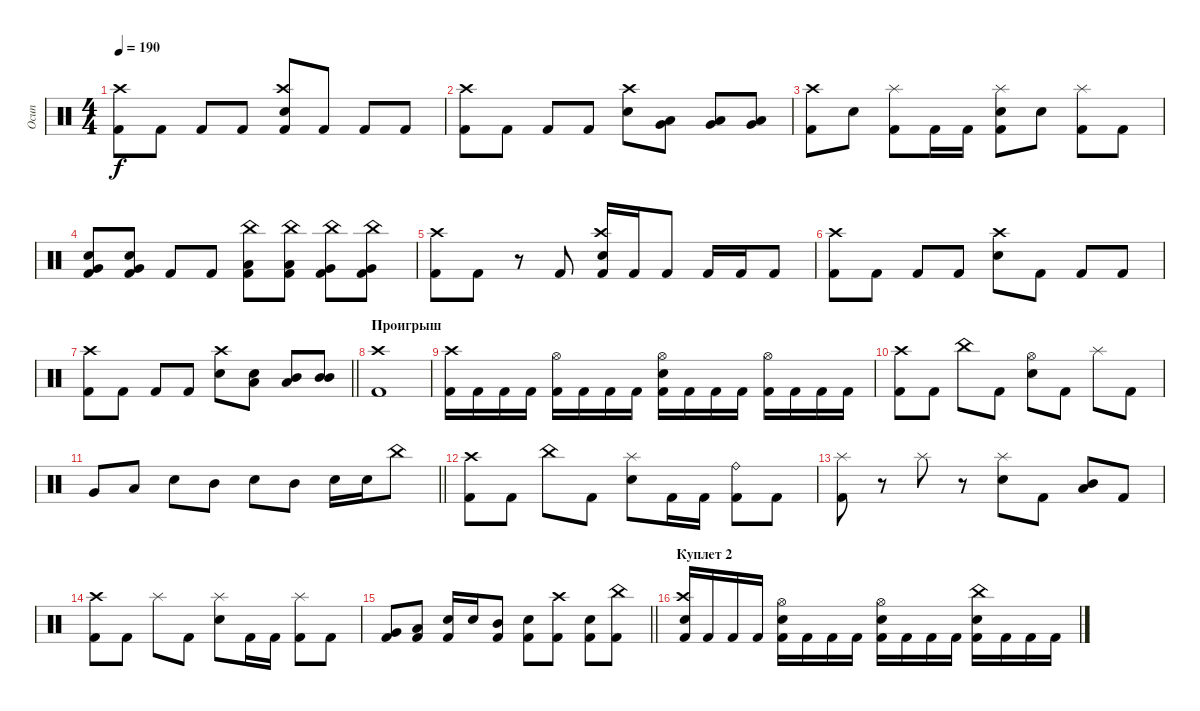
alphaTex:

\track ("Осип" "Осип") {instrument percussion}
\staff {score}
\articulation defaults
\ts (4 4)
\tempo 190
\clef neutral
\ks c
("Kick (hit) 2" "Crash high (hit)").8{dy f} "Kick (hit) 2".8 "Kick (hit) 2".8 "Kick (hit) 2".8 ("Kick (hit) 2" "Electric Snare (hit)" "Crash high (hit)").8 "Kick (hit) 2".8 "Kick (hit) 2".8 "Kick (hit) 2".8 |
("Kick (hit) 2" "Crash high (hit)").8 "Kick (hit) 2".8 "Kick (hit) 2".8 "Kick (hit) 2".8 ("Electric Snare (hit)" "Crash high (hit)").8 ("Low Tom (hit)" "Very Low Tom (hit)").8 ("Low Tom (hit)" "Very Low Tom (hit)").8 ("Low Tom (hit)" "Very Low Tom (hit)").8 |
("Kick (hit) 2" "Crash high (hit)").8 "Electric Snare (hit)".8 ("Kick (hit) 2" "Splash (hit)").8 "Kick (hit) 2".16 "Kick (hit) 2".16 ("Electric Snare (hit)" "Kick (hit) 2" "Splash (hit)").8 "Electric Snare (hit)".8 ("Kick (hit) 2" "Splash (hit)").8 "Kick (hit) 2".8 |
("Kick (hit) 2" "Electric Snare (hit)" "Very Low Tom (hit)").8 ("Kick (hit) 2" "Electric Snare (hit)" "Very Low Tom (hit)").8 "Kick (hit) 2".8 "Kick (hit) 2".8 ("Low Tom (hit)" "Kick (hit) 2" "China (hit)").8 ("Low Tom (hit)" "Kick (hit) 2" "China (hit)").8 ("Very Low Tom (hit)" "Kick (hit) 2" "China (hit)").8 ("Very Low Tom (hit)" "Kick (hit) 2" "China (hit)").8 |
("Kick (hit) 2" "Crash high (hit)").8 "Kick (hit) 2".8 r.8 "Kick (hit) 2".8 ("Kick (hit) 2" "Electric Snare (hit)" "Crash high (hit)").16 "Kick (hit) 2".16 "Kick (hit) 2".8 "Kick (hit) 2".16 "Kick (hit) 2".16 "Kick (hit) 2".8 |
("Kick (hit) 2" "Crash high (hit)").8 "Kick (hit) 2".8 "Kick (hit) 2".8 "Kick (hit) 2".8 ("Electric Snare (hit)" "Crash high (hit)").8 "Kick (hit) 2".8 "Kick (hit) 2".8 "Kick (hit) 2".8 |
\barLineRight lightlight
("Kick (hit) 2" "Crash high (hit)").8 "Kick (hit) 2".8 "Kick (hit) 2".8 "Kick (hit) 2".8 ("Electric Snare (hit)" "Crash high (hit)").8 ("Low Tom (hit)" "Electric Snare (hit)").8 ("Mid Tom (hit)" "Low Tom (hit)").8 ("Mid Tom (hit)" "Mid Tom (hit)").8 |
\section ("" "Проигрыш")
("Kick (hit) 2" "Crash high (hit)").1 |
("Crash high (hit)" "Kick (hit) 2").16 "Kick (hit) 2".16 "Kick (hit) 2".16 "Kick (hit) 2".16 ("Hi-Hat (open)" "Kick (hit) 2").16 "Kick (hit) 2".16 "Kick (hit) 2".16 "Kick (hit) 2".16 ("Hi-Hat (open)" "Kick (hit) 2" "Electric Snare (hit)").16 "Kick (hit) 2".16 "Kick (hit) 2".16 "Kick (hit) 2".16 ("Hi-Hat (open)" "Kick (hit) 2").16 "Kick (hit) 2".16 "Kick (hit) 2".16 "Kick (hit) 2".16 |
("Kick (hit) 2" "Crash high (hit)").8 "Kick (hit) 2".8 "China (hit)".8 "Kick (hit) 2".8 ("Electric Snare (hit)" "Hi-Hat (open)").8 "Kick (hit) 2".8 "Splash (hit)".8 "Kick (hit) 2".8 |
\barLineRight lightlight "Very Low Tom (hit)".8 "Low Tom (hit)".8 "Electric Snare (hit)".8 "Mid Tom (hit)".8 "Electric Snare (hit)".8 "Mid Tom (hit)".8 "Electric Snare (hit)".16 "Electric Snare (hit)".16 "China (hit)".8
|
("Kick (hit) 2" "Crash high (hit)").8 "Kick (hit) 2".8 "China (hit)".8 "Kick (hit) 2".8 ("Electric Snare (hit)" "Splash (hit)").8 "Kick (hit) 2".16 "Kick (hit) 2".16 ("Kick (hit) 2" "Ride (bell)").8 "Kick (hit) 2".8 |
("Kick (hit) 2" "Splash (hit)").8 r.8 "Splash (hit)".8 r.8 ("Electric Snare (hit)" "Splash (hit)").8 "Kick (hit) 2".8 ("Low Tom (hit)" "Mid Tom (hit)").8 "Kick (hit) 2".8 |
("Kick (hit) 2" "Crash high (hit)").8 "Kick (hit) 2".8 "Splash (hit)".8 "Kick (hit) 2".8 ("Electric Snare (hit)" "Splash (hit)").8 "Kick (hit) 2".16 "Kick (hit) 2".16 ("Kick (hit) 2" "Splash (hit)").8 "Kick (hit) 2".8 |
\barLineRight lightlight
("Very Low Tom (hit)" "Kick (hit) 2").8 ("Low Tom (hit)" "Kick (hit) 2").8 ("Electric Snare (hit)" "Kick (hit) 2").16 "Electric Snare (hit)".16 ("Mid Tom (hit)" "Kick (hit) 2").8 ("Electric Snare (hit)" "Kick (hit) 2").8 ("Crash high (hit)" "Kick (hit) 2").8 ("Electric Snare (hit)" "Kick (hit) 2").8 ("China (hit)" "Kick (hit) 2").8 |
\section ("" "Куплет 2")
("Kick (hit) 2" "Electric Snare (hit)" "Crash high (hit)").16 "Kick (hit) 2".16 "Kick (hit) 2".16 "Kick (hit) 2".16 ("Kick (hit) 2" "Electric Snare (hit)" "Hi-Hat (open)").16 "Kick (hit) 2".16 "Kick (hit) 2".16 "Kick (hit) 2".16 ("Kick (hit) 2" "Electric Snare (hit)" "Hi-Hat (open)").16 "Kick (hit) 2".16 "Kick (hit) 2".16 "Kick (hit) 2".16 ("Kick (hit) 2" "Electric Snare (hit)" "China (hit)").16 "Kick (hit) 2".16 "Kick (hit) 2".16 "Kick (hit) 2".16
